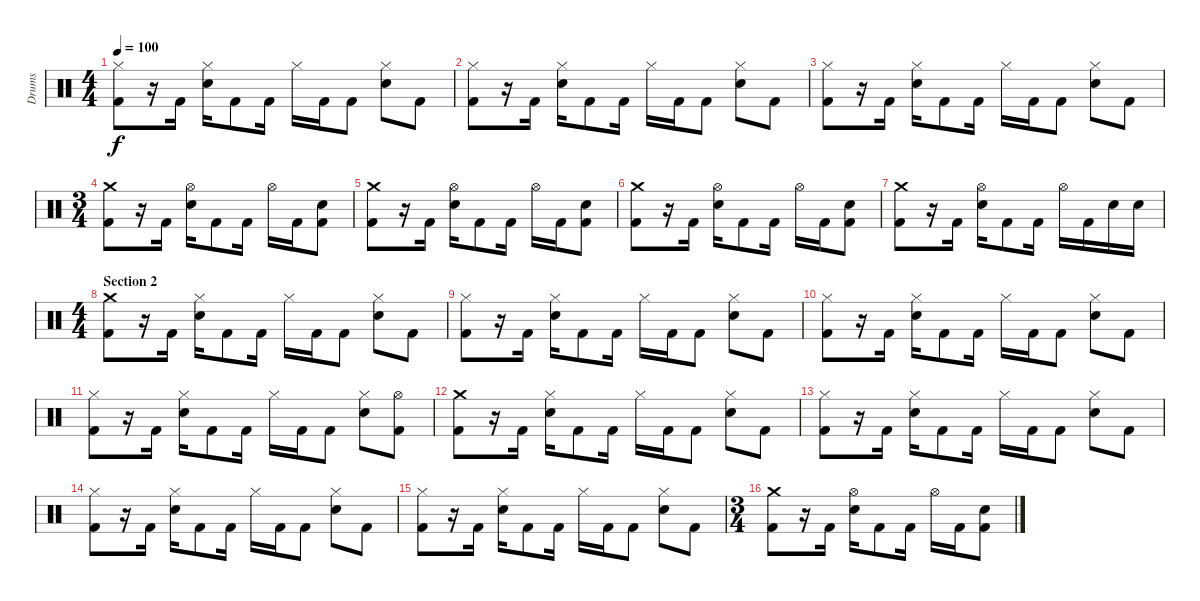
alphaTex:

\track ("Drums" "Drums") {instrument percussion}
\staff {score}
\articulation defaults
\ts (4 4)
\tempo 100
\clef neutral
\ks c
("Hi-Hat (closed)" "Kick (hit) 2").8{dy f} r.16 "Kick (hit) 2".16 ("Hi-Hat (closed)" "Snare (hit) 2").16 "Kick (hit) 2".8 "Kick (hit) 2".16 "Hi-Hat (closed)".16 "Kick (hit) 2".16 "Kick (hit) 2".8 ("Hi-Hat (closed)" "Snare (hit) 2").8 "Kick (hit) 2".8 |
("Hi-Hat (closed)" "Kick (hit) 2").8 r.16 "Kick (hit) 2".16 ("Hi-Hat (closed)" "Snare (hit) 2").16 "Kick (hit) 2".8 "Kick (hit) 2".16 "Hi-Hat (closed)".16 "Kick (hit) 2".16 "Kick (hit) 2".8 ("Hi-Hat (closed)" "Snare (hit) 2").8 "Kick (hit) 2".8 |
("Hi-Hat (closed)" "Kick (hit) 2").8 r.16 "Kick (hit) 2".16 ("Hi-Hat (closed)" "Snare (hit) 2").16 "Kick (hit) 2".8 "Kick (hit) 2".16 "Hi-Hat (closed)".16 "Kick (hit) 2".16 "Kick (hit) 2".8 ("Hi-Hat (closed)" "Snare (hit) 2").8 "Kick (hit) 2".8 |
\ts (3 4)
("Crash medium (hit)" "Kick (hit) 2").8 r.16 "Kick (hit) 2".16 ("Hi-Hat (open)" "Snare (hit) 2").16 "Kick (hit) 2".8 "Kick (hit) 2".16 "Hi-Hat (open)".16 "Kick (hit) 2".16 ("Snare (hit) 2" "Kick (hit) 2").8 |
("Crash medium (hit)" "Kick (hit) 2").8 r.16 "Kick (hit) 2".16 ("Hi-Hat (open)" "Snare (hit) 2").16 "Kick (hit) 2".8 "Kick (hit) 2".16 "Hi-Hat (open)".16 "Kick (hit) 2".16 ("Snare (hit) 2" "Kick (hit) 2").8 |
("Crash medium (hit)" "Kick (hit) 2").8 r.16 "Kick (hit) 2".16 ("Hi-Hat (open)" "Snare (hit) 2").16 "Kick (hit) 2".8 "Kick (hit) 2".16 "Hi-Hat (open)".16 "Kick (hit) 2".16 ("Snare (hit) 2" "Kick (hit) 2").8 |
("Crash medium (hit)" "Kick (hit) 2").8 r.16 "Kick (hit) 2".16 ("Hi-Hat (open)" "Snare (hit) 2").16 "Kick (hit) 2".8 "Kick (hit) 2".16 "Hi-Hat (open)".16 "Kick (hit) 2".16 "Snare (hit) 2".16 "Snare (hit) 2".16 |
\ts (4 4)
\section ("" "Section 2")
("Crash medium (hit)" "Kick (hit) 2").8 r.16 "Kick (hit) 2".16 ("Hi-Hat (closed)" "Snare (hit) 2").16 "Kick (hit) 2".8 "Kick (hit) 2".16 "Hi-Hat (closed)".16 "Kick (hit) 2".16 "Kick (hit) 2".8 ("Hi-Hat (closed)" "Snare (hit) 2").8 "Kick (hit) 2".8 |
("Hi-Hat (closed)" "Kick (hit) 2").8 r.16 "Kick (hit) 2".16 ("Hi-Hat (closed)" "Snare (hit) 2").16 "Kick (hit) 2".8 "Kick (hit) 2".16 "Hi-Hat (closed)".16 "Kick (hit) 2".16 "Kick (hit) 2".8 ("Hi-Hat (closed)" "Snare (hit) 2").8 "Kick (hit) 2".8 |
("Hi-Hat (closed)" "Kick (hit) 2").8 r.16 "Kick (hit) 2".16 ("Hi-Hat (closed)" "Snare (hit) 2").16 "Kick (hit) 2".8 "Kick (hit) 2".16 "Hi-Hat (closed)".16 "Kick (hit) 2".16 "Kick (hit) 2".8 ("Hi-Hat (closed)" "Snare (hit) 2").8 "Kick (hit) 2".8 |
("Hi-Hat (closed)" "Kick (hit) 2").8 r.16 "Kick (hit) 2".16 ("Hi-Hat (closed)" "Snare (hit) 2").16 "Kick (hit) 2".8 "Kick (hit) 2".16 "Hi-Hat (closed)".16 "Kick (hit) 2".16 "Kick (hit) 2".8 ("Hi-Hat (closed)" "Snare (hit) 2").8 ("Hi-Hat (open)" "Kick (hit) 2").8 |
("Crash medium (hit)" "Kick (hit) 2").8 r.16 "Kick (hit) 2".16 ("Hi-Hat (closed)" "Snare (hit) 2").16 "Kick (hit) 2".8 "Kick (hit) 2".16 "Hi-Hat (closed)".16 "Kick (hit) 2".16 "Kick (hit) 2".8 ("Hi-Hat (closed)" "Snare (hit) 2").8 "Kick (hit) 2".8 |
("Hi-Hat (closed)" "Kick (hit) 2").8 r.16 "Kick (hit) 2".16 ("Hi-Hat (closed)" "Snare (hit) 2").16 "Kick (hit) 2".8 "Kick (hit) 2".16 "Hi-Hat (closed)".16 "Kick (hit) 2".16 "Kick (hit) 2".8 ("Hi-Hat (closed)" "Snare (hit) 2").8 "Kick (hit) 2".8 |
("Hi-Hat (closed)" "Kick (hit) 2").8 r.16 "Kick (hit) 2".16 ("Hi-Hat (closed)" "Snare (hit) 2").16 "Kick (hit) 2".8 "Kick (hit) 2".16 "Hi-Hat (closed)".16 "Kick (hit) 2".16 "Kick (hit) 2".8 ("Hi-Hat (closed)" "Snare (hit) 2").8 "Kick (hit) 2".8 |
("Hi-Hat (closed)" "Kick (hit) 2").8 r.16 "Kick (hit) 2".16 ("Hi-Hat (closed)" "Snare (hit) 2").16 "Kick (hit) 2".8 "Kick (hit) 2".16 "Hi-Hat (closed)".16 "Kick (hit) 2".16 "Kick (hit) 2".8 ("Hi-Hat (closed)" "Snare (hit) 2").8 "Kick (hit) 2".8 |
\ts (3 4)
("Crash medium (hit)" "Kick (hit) 2").8 r.16 "Kick (hit) 2".16 ("Hi-Hat (open)" "Snare (hit) 2").16 "Kick (hit) 2".8 "Kick (hit) 2".16 "Hi-Hat (open)".16 "Kick (hit) 2".16 ("Snare (hit) 2" "Kick (hit) 2").8
